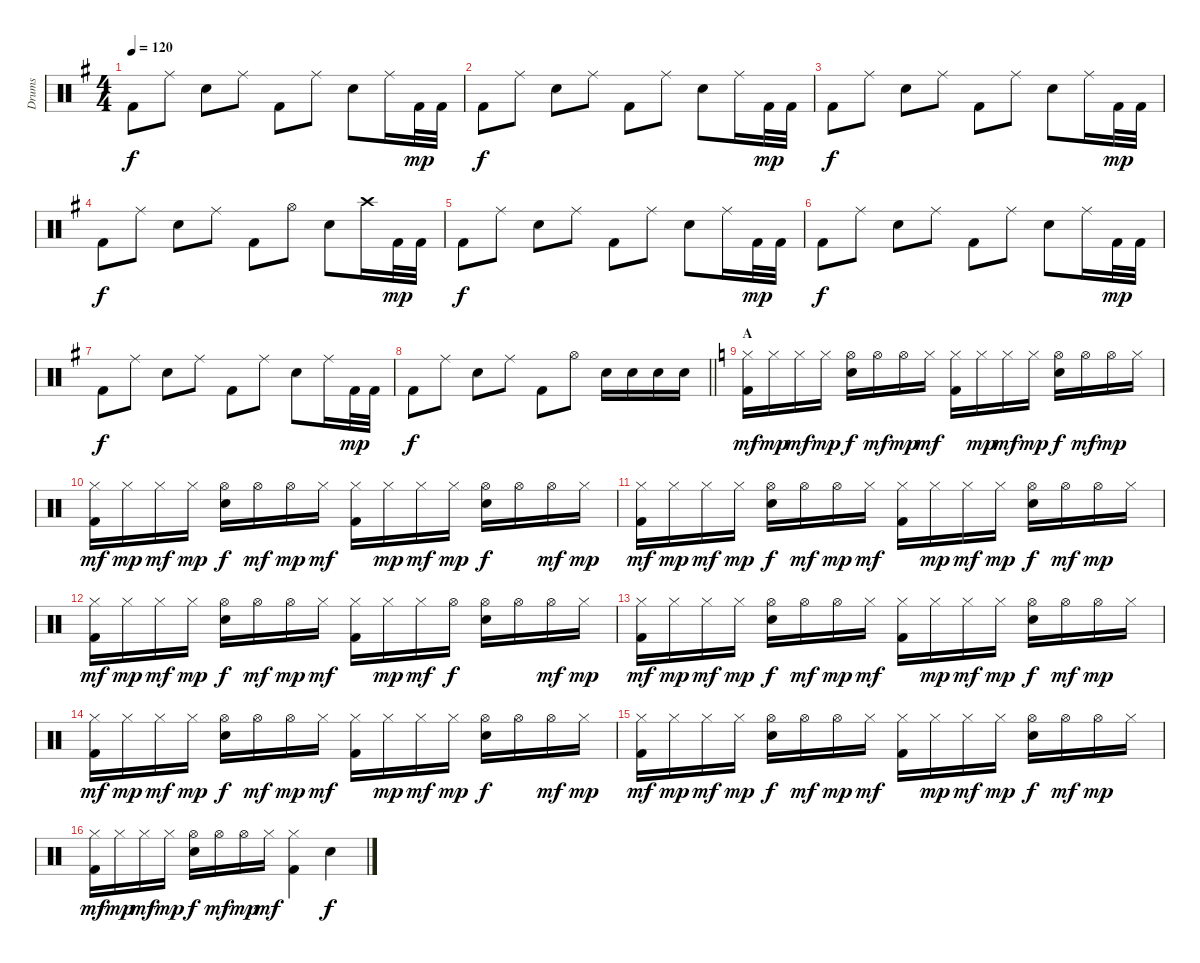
\track ("Drums" "Drums") {instrument percussion}
\staff
\articulation defaults
\ts (4 4)
\tempo 120
\clef neutral
\ks g "Kick (hit) 2".8{dy f} "Ride (middle)".8 "Electric Snare (hit)".8 "Ride (middle)".8 "Kick (hit) 2".8 "Ride (middle)".8 "Electric Snare (hit)".8 "Ride (middle)".16 "Kick (hit) 2".32{dy mp} "Kick (hit) 2".32
|
"Kick (hit) 2".8{dy f} "Ride (middle)".8 "Electric Snare (hit)".8 "Ride (middle)".8 "Kick (hit) 2".8 "Ride (middle)".8 "Electric Snare (hit)".8 "Ride (middle)".16 "Kick (hit) 2".32{dy mp} "Kick (hit) 2".32 |
"Kick (hit) 2".8{dy f} "Ride (middle)".8 "Electric Snare (hit)".8 "Ride (middle)".8 "Kick (hit) 2".8 "Ride (middle)".8 "Electric Snare (hit)".8 "Ride (middle)".16 "Kick (hit) 2".32{dy mp} "Kick (hit) 2".32 |
"Kick (hit) 2".8{dy f} "Ride (middle)".8 "Electric Snare (hit)".8 "Ride (middle)".8 "Kick (hit) 2".8 "Hi-Hat (open)".8 "Electric Snare (hit)".8 "Crash high (hit)".16 "Kick (hit) 2".32{dy mp} "Kick (hit) 2".32 |
"Kick (hit) 2".8{dy f} "Ride (middle)".8 "Electric Snare (hit)".8 "Ride (middle)".8 "Kick (hit) 2".8 "Ride (middle)".8 "Electric Snare (hit)".8 "Ride (middle)".16 "Kick (hit) 2".32{dy mp} "Kick (hit) 2".32 |
"Kick (hit) 2".8{dy f} "Ride (middle)".8 "Electric Snare (hit)".8 "Ride (middle)".8 "Kick (hit) 2".8 "Ride (middle)".8 "Electric Snare (hit)".8 "Ride (middle)".16 "Kick (hit) 2".32{dy mp} "Kick (hit) 2".32 |
"Kick (hit) 2".8{dy f} "Ride (middle)".8 "Electric Snare (hit)".8 "Ride (middle)".8 "Kick (hit) 2".8 "Ride (middle)".8 "Electric Snare (hit)".8 "Ride (middle)".16 "Kick (hit) 2".32{dy mp} "Kick (hit) 2".32 |
\barLineRight lightlight "Kick (hit) 2".8{dy f} "Ride (middle)".8 "Electric Snare (hit)".8 "Ride (middle)".8 "Kick (hit) 2".8 "Hi-Hat (open)".8 "Electric Snare (hit)".16 "Electric Snare (hit)".16 "Electric Snare (hit)".16 "Electric Snare (hit)".16
|
\section ("" "A")
\ks c
("Hi-Hat (closed)" "Kick (hit) 2").16{dy mf} "Hi-Hat (closed)".16{dy mp} "Hi-Hat (closed)".16{dy mf} "Hi-Hat (closed)".16{dy mp} ("Hi-Hat (open)" "Electric Snare (hit)").16{dy f} "Hi-Hat (open)".16{dy mf} "Hi-Hat (open)".16{dy mp} "Hi-Hat (closed)".16{dy mf} ("Hi-Hat (closed)" "Kick (hit) 2").16 "Hi-Hat (closed)".16{dy mp} "Hi-Hat (closed)".16{dy mf} "Hi-Hat (closed)".16{dy mp} ("Hi-Hat (open)" "Electric Snare (hit)").16{dy f} "Hi-Hat (open)".16{dy mf} "Hi-Hat (open)".16{dy mp} "Hi-Hat (closed)".16 |
("Hi-Hat (closed)" "Kick (hit) 2").16{dy mf} "Hi-Hat (closed)".16{dy mp} "Hi-Hat (closed)".16{dy mf} "Hi-Hat (closed)".16{dy mp} ("Hi-Hat (open)" "Electric Snare (hit)").16{dy f} "Hi-Hat (open)".16{dy mf} "Hi-Hat (open)".16{dy mp} "Hi-Hat (closed)".16{dy mf} ("Hi-Hat (closed)" "Kick (hit) 2").16 "Hi-Hat (closed)".16{dy mp} "Hi-Hat (closed)".16{dy mf} "Hi-Hat (closed)".16{dy mp} ("Hi-Hat (open)" "Electric Snare (hit)").16{dy f} "Hi-Hat (open)".16 "Hi-Hat (open)".16{dy mf} "Hi-Hat (closed)".16{dy mp} |
("Hi-Hat (closed)" "Kick (hit) 2").16{dy mf} "Hi-Hat (closed)".16{dy mp} "Hi-Hat (closed)".16{dy mf} "Hi-Hat (closed)".16{dy mp} ("Hi-Hat (open)" "Electric Snare (hit)").16{dy f} "Hi-Hat (open)".16{dy mf} "Hi-Hat (open)".16{dy mp} "Hi-Hat (closed)".16{dy mf} ("Hi-Hat (closed)" "Kick (hit) 2").16 "Hi-Hat (closed)".16{dy mp} "Hi-Hat (closed)".16{dy mf} "Hi-Hat (closed)".16{dy mp} ("Hi-Hat (open)" "Electric Snare (hit)").16{dy f} "Hi-Hat (open)".16{dy mf} "Hi-Hat (open)".16{dy mp} "Hi-Hat (closed)".16 |
("Hi-Hat (closed)" "Kick (hit) 2").16{dy mf} "Hi-Hat (closed)".16{dy mp} "Hi-Hat (closed)".16{dy mf} "Hi-Hat (closed)".16{dy mp} ("Hi-Hat (open)" "Electric Snare (hit)").16{dy f} "Hi-Hat (open)".16{dy mf} "Hi-Hat (open)".16{dy mp} "Hi-Hat (closed)".16{dy mf} ("Hi-Hat (closed)" "Kick (hit) 2").16 "Hi-Hat (closed)".16{dy mp} "Hi-Hat (closed)".16{dy mf} "Hi-Hat (open)".16{dy f} ("Hi-Hat (open)" "Electric Snare (hit)").16 "Hi-Hat (open)".16 "Hi-Hat (open)".16{dy mf} "Hi-Hat (closed)".16{dy mp} |
("Hi-Hat (closed)" "Kick (hit) 2").16{dy mf} "Hi-Hat (closed)".16{dy mp} "Hi-Hat (closed)".16{dy mf} "Hi-Hat (closed)".16{dy mp} ("Hi-Hat (open)" "Electric Snare (hit)").16{dy f} "Hi-Hat (open)".16{dy mf} "Hi-Hat (open)".16{dy mp} "Hi-Hat (closed)".16{dy mf} ("Hi-Hat (closed)" "Kick (hit) 2").16 "Hi-Hat (closed)".16{dy mp} "Hi-Hat (closed)".16{dy mf} "Hi-Hat (closed)".16{dy mp} ("Hi-Hat (open)" "Electric Snare (hit)").16{dy f} "Hi-Hat (open)".16{dy mf} "Hi-Hat (open)".16{dy mp} "Hi-Hat (closed)".16 |
("Hi-Hat (closed)" "Kick (hit) 2").16{dy mf} "Hi-Hat (closed)".16{dy mp} "Hi-Hat (closed)".16{dy mf} "Hi-Hat (closed)".16{dy mp} ("Hi-Hat (open)" "Electric Snare (hit)").16{dy f} "Hi-Hat (open)".16{dy mf} "Hi-Hat (open)".16{dy mp} "Hi-Hat (closed)".16{dy mf} ("Hi-Hat (closed)" "Kick (hit) 2").16 "Hi-Hat (closed)".16{dy mp} "Hi-Hat (closed)".16{dy mf} "Hi-Hat (closed)".16{dy mp} ("Hi-Hat (open)" "Electric Snare (hit)").16{dy f} "Hi-Hat (open)".16 "Hi-Hat (open)".16{dy mf} "Hi-Hat (closed)".16{dy mp} |
("Hi-Hat (closed)" "Kick (hit) 2").16{dy mf} "Hi-Hat (closed)".16{dy mp} "Hi-Hat (closed)".16{dy mf} "Hi-Hat (closed)".16{dy mp} ("Hi-Hat (open)" "Electric Snare (hit)").16{dy f} "Hi-Hat (open)".16{dy mf} "Hi-Hat (open)".16{dy mp} "Hi-Hat (closed)".16{dy mf} ("Hi-Hat (closed)" "Kick (hit) 2").16 "Hi-Hat (closed)".16{dy mp} "Hi-Hat (closed)".16{dy mf} "Hi-Hat (closed)".16{dy mp} ("Hi-Hat (open)" "Electric Snare (hit)").16{dy f} "Hi-Hat (open)".16{dy mf} "Hi-Hat (open)".16{dy mp} "Hi-Hat (closed)".16 |
("Hi-Hat (closed)" "Kick (hit) 2").16{dy mf} "Hi-Hat (closed)".16{dy mp} "Hi-Hat (closed)".16{dy mf} "Hi-Hat (closed)".16{dy mp} ("Hi-Hat (open)" "Electric Snare (hit)").16{dy f} "Hi-Hat (open)".16{dy mf} "Hi-Hat (open)".16{dy mp} "Hi-Hat (closed)".16{dy mf} ("Hi-Hat (closed)" "Kick (hit) 2").4 "Electric Snare (hit)".4{dy f}
